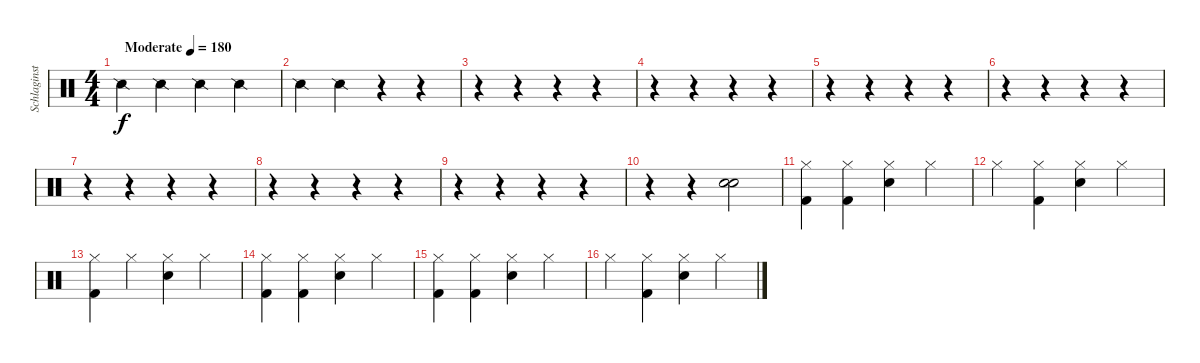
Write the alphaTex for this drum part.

\track ("Schlaginstrumente - Auswahl" "Schlaginst") {instrument percussion}
\staff {score}
\articulation defaults
\ts (4 4)
\tempo (180 "Moderate")
\clef neutral
\ks c "Snare (side stick) 2".4{dy f} "Snare (side stick) 2".4 "Snare (side stick) 2".4 "Snare (side stick) 2".4
|
"Snare (side stick) 2".4 "Snare (side stick) 2".4 r.4 r.4 |
r.4 r.4 r.4 r.4 |
r.4 r.4 r.4 r.4 |
r.4 r.4 r.4 r.4 |
r.4 r.4 r.4 r.4 |
r.4 r.4 r.4 r.4 |
r.4 r.4 r.4 r.4 |
r.4 r.4 r.4 r.4 |
r.4 r.4 ("Snare (hit) 2" "Snare (hit) 2").2 |
("Hi-Hat (closed)" "Kick (hit) 2").4 ("Hi-Hat (closed)" "Kick (hit) 2").4 ("Hi-Hat (closed)" "Snare (hit) 2").4 "Hi-Hat (closed)".4 |
"Hi-Hat (closed)".4 ("Hi-Hat (closed)" "Kick (hit) 2").4 ("Hi-Hat (closed)" "Snare (hit) 2").4 "Hi-Hat (closed)".4 |
("Hi-Hat (closed)" "Kick (hit) 2").4 "Hi-Hat (closed)".4 ("Hi-Hat (closed)" "Snare (hit) 2").4 "Hi-Hat (closed)".4 |
("Hi-Hat (closed)" "Kick (hit) 2").4 ("Hi-Hat (closed)" "Kick (hit) 2").4 ("Hi-Hat (closed)" "Snare (hit) 2").4 "Hi-Hat (closed)".4 |
("Hi-Hat (closed)" "Kick (hit) 2").4 ("Hi-Hat (closed)" "Kick (hit) 2").4 ("Hi-Hat (closed)" "Snare (hit) 2").4 "Hi-Hat (closed)".4 |
"Hi-Hat (closed)".4 ("Hi-Hat (closed)" "Kick (hit) 2").4 ("Hi-Hat (closed)" "Snare (hit) 2").4 "Hi-Hat (closed)".4
